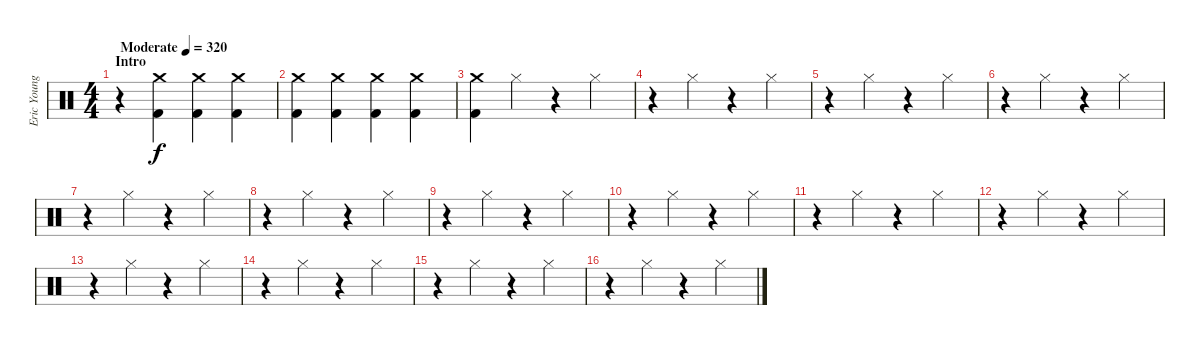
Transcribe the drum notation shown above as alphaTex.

\track ("Eric Young (Drums)" "Eric Young") {instrument percussion}
\staff {score}
\articulation defaults
\ts (4 4)
\section ("" "Intro")
\tempo (320 "Moderate")
\clef neutral
\ks c
r.4{dy f} ("Kick (hit) 2" "Crash medium (hit)").4 ("Kick (hit) 2" "Crash medium (hit)").4 ("Kick (hit) 2" "Crash medium (hit)").4 |
("Kick (hit) 2" "Crash medium (hit)").4 ("Kick (hit) 2" "Crash medium (hit)").4 ("Kick (hit) 2" "Crash medium (hit)").4 ("Kick (hit) 2" "Crash medium (hit)").4 |
("Kick (hit) 2" "Crash medium (hit)").4 "Hi-Hat (closed)".4 r.4 "Hi-Hat (closed)".4 |
r.4 "Hi-Hat (closed)".4 r.4 "Hi-Hat (closed)".4 |
r.4 "Hi-Hat (closed)".4 r.4 "Hi-Hat (closed)".4 |
r.4 "Hi-Hat (closed)".4 r.4 "Hi-Hat (closed)".4 |
r.4 "Hi-Hat (closed)".4 r.4 "Hi-Hat (closed)".4 |
r.4 "Hi-Hat (closed)".4 r.4 "Hi-Hat (closed)".4 |
r.4 "Hi-Hat (closed)".4 r.4 "Hi-Hat (closed)".4 |
r.4 "Hi-Hat (closed)".4 r.4 "Hi-Hat (closed)".4 |
r.4 "Hi-Hat (closed)".4 r.4 "Hi-Hat (closed)".4 |
r.4 "Hi-Hat (closed)".4 r.4 "Hi-Hat (closed)".4 |
r.4 "Hi-Hat (closed)".4 r.4 "Hi-Hat (closed)".4 |
r.4 "Hi-Hat (closed)".4 r.4 "Hi-Hat (closed)".4 |
r.4 "Hi-Hat (closed)".4 r.4 "Hi-Hat (closed)".4 |
r.4 "Hi-Hat (closed)".4 r.4 "Hi-Hat (closed)".4
